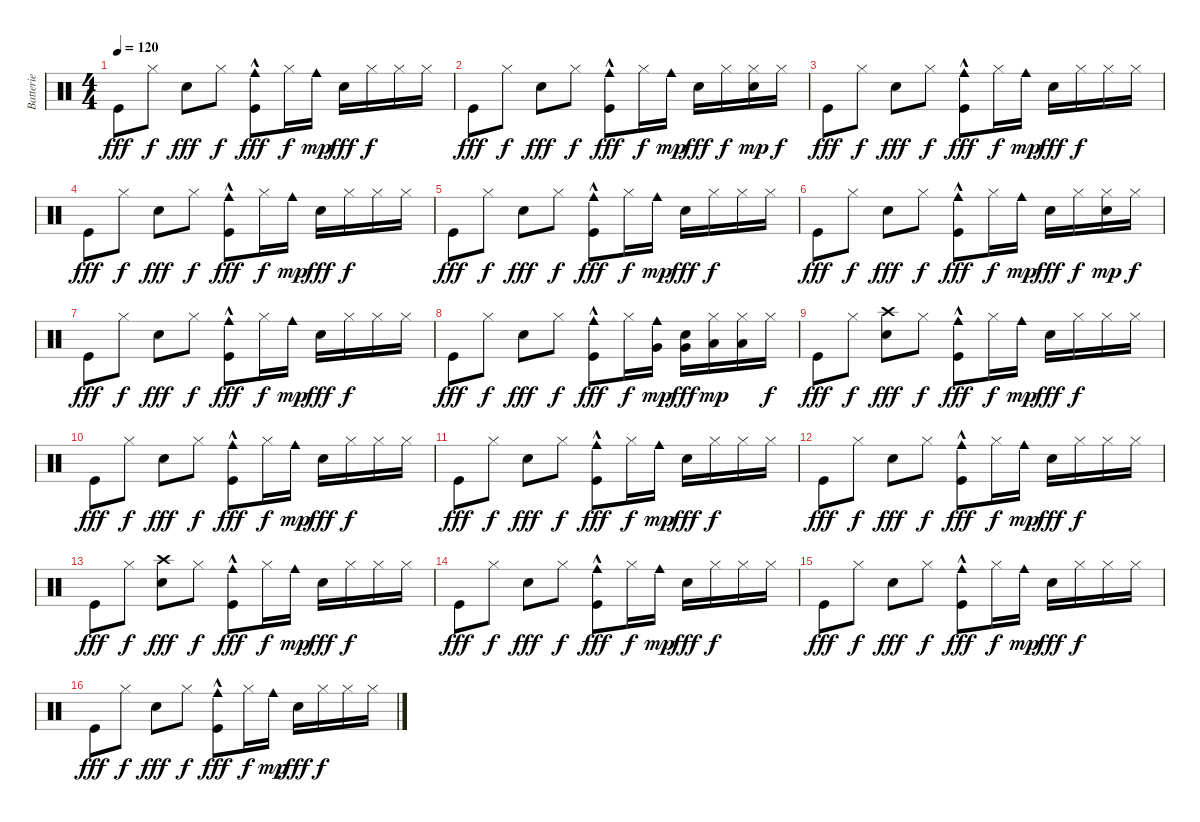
\track ("Batterie" "Batterie") {instrument percussion}
\staff {score}
\articulation defaults
\ts (4 4)
\tempo 120
\clef neutral
\ks c "Kick (hit)".8{dy fff} "Hi-Hat (closed)".8{dy f} "Snare (hit) 2".8{dy fff} "Hi-Hat (closed)".8{dy f}
("Cowbell medium (hit)"{hac} "Kick (hit)").8{dy fff} "Hi-Hat (closed)".16{dy f} "Cowbell medium (hit)".16{dy mp} "Snare (hit) 2".16{dy fff} "Hi-Hat (closed)".16{dy f} "Hi-Hat (closed)".16 "Hi-Hat (closed)".16 |
"Kick (hit)".8{dy fff} "Hi-Hat (closed)".8{dy f} "Snare (hit) 2".8{dy fff} "Hi-Hat (closed)".8{dy f} ("Cowbell medium (hit)"{hac} "Kick (hit)").8{dy fff} "Hi-Hat (closed)".16{dy f} "Cowbell medium (hit)".16{dy mp} "Snare (hit) 2".16{dy fff} "Hi-Hat (closed)".16{dy f} ("Hand Clap (hit)" "Hi-Hat (closed)").16{dy mp} "Hi-Hat (closed)".16{dy f} |
"Kick (hit)".8{dy fff} "Hi-Hat (closed)".8{dy f} "Snare (hit) 2".8{dy fff} "Hi-Hat (closed)".8{dy f} ("Cowbell medium (hit)"{hac} "Kick (hit)").8{dy fff} "Hi-Hat (closed)".16{dy f} "Cowbell medium (hit)".16{dy mp} "Snare (hit) 2".16{dy fff} "Hi-Hat (closed)".16{dy f} "Hi-Hat (closed)".16 "Hi-Hat (closed)".16 |
"Kick (hit)".8{dy fff} "Hi-Hat (closed)".8{dy f} "Snare (hit) 2".8{dy fff} "Hi-Hat (closed)".8{dy f} ("Cowbell medium (hit)"{hac} "Kick (hit)").8{dy fff} "Hi-Hat (closed)".16{dy f} "Cowbell medium (hit)".16{dy mp} "Snare (hit) 2".16{dy fff} "Hi-Hat (closed)".16{dy f} "Hi-Hat (closed)".16 "Hi-Hat (closed)".16 |
"Kick (hit)".8{dy fff} "Hi-Hat (closed)".8{dy f} "Snare (hit) 2".8{dy fff} "Hi-Hat (closed)".8{dy f} ("Cowbell medium (hit)"{hac} "Kick (hit)").8{dy fff} "Hi-Hat (closed)".16{dy f} "Cowbell medium (hit)".16{dy mp} "Snare (hit) 2".16{dy fff} "Hi-Hat (closed)".16{dy f} "Hi-Hat (closed)".16 "Hi-Hat (closed)".16 |
"Kick (hit)".8{dy fff} "Hi-Hat (closed)".8{dy f} "Snare (hit) 2".8{dy fff} "Hi-Hat (closed)".8{dy f} ("Cowbell medium (hit)"{hac} "Kick (hit)").8{dy fff} "Hi-Hat (closed)".16{dy f} "Cowbell medium (hit)".16{dy mp} "Snare (hit) 2".16{dy fff} "Hi-Hat (closed)".16{dy f} ("Hand Clap (hit)" "Hi-Hat (closed)").16{dy mp} "Hi-Hat (closed)".16{dy f} |
"Kick (hit)".8{dy fff} "Hi-Hat (closed)".8{dy f} "Snare (hit) 2".8{dy fff} "Hi-Hat (closed)".8{dy f} ("Cowbell medium (hit)"{hac} "Kick (hit)").8{dy fff} "Hi-Hat (closed)".16{dy f} "Cowbell medium (hit)".16{dy mp} "Snare (hit) 2".16{dy fff} "Hi-Hat (closed)".16{dy f} "Hi-Hat (closed)".16 "Hi-Hat (closed)".16 |
"Kick (hit)".8{dy fff} "Hi-Hat (closed)".8{dy f} "Snare (hit) 2".8{dy fff} "Hi-Hat (closed)".8{dy f} ("Cowbell medium (hit)"{hac} "Kick (hit)").8{dy fff} "Hi-Hat (closed)".16{dy f} ("Very Low Tom (hit)" "Cowbell medium (hit)").16{dy mp} ("Very Low Tom (hit)" "Snare (hit) 2").16{dy fff} ("Low Floor Tom (hit)" "Hi-Hat (closed)").16{dy mp} ("Low Floor Tom (hit)" "Hi-Hat (closed)").16 "Hi-Hat (closed)".16{dy f} |
"Kick (hit)".8{dy fff} "Hi-Hat (closed)".8{dy f} ("Crash high (hit)" "Snare (hit) 2").8{dy fff} "Hi-Hat (closed)".8{dy f} ("Cowbell medium (hit)"{hac} "Kick (hit)").8{dy fff} "Hi-Hat (closed)".16{dy f} "Cowbell medium (hit)".16{dy mp} "Snare (hit) 2".16{dy fff} "Hi-Hat (closed)".16{dy f} "Hi-Hat (closed)".16 "Hi-Hat (closed)".16 |
"Kick (hit)".8{dy fff} "Hi-Hat (closed)".8{dy f} "Snare (hit) 2".8{dy fff} "Hi-Hat (closed)".8{dy f} ("Cowbell medium (hit)"{hac} "Kick (hit)").8{dy fff} "Hi-Hat (closed)".16{dy f} "Cowbell medium (hit)".16{dy mp} "Snare (hit) 2".16{dy fff} "Hi-Hat (closed)".16{dy f} "Hi-Hat (closed)".16 "Hi-Hat (closed)".16 |
"Kick (hit)".8{dy fff} "Hi-Hat (closed)".8{dy f} "Snare (hit) 2".8{dy fff} "Hi-Hat (closed)".8{dy f} ("Cowbell medium (hit)"{hac} "Kick (hit)").8{dy fff} "Hi-Hat (closed)".16{dy f} "Cowbell medium (hit)".16{dy mp} "Snare (hit) 2".16{dy fff} "Hi-Hat (closed)".16{dy f} "Hi-Hat (closed)".16 "Hi-Hat (closed)".16 |
"Kick (hit)".8{dy fff} "Hi-Hat (closed)".8{dy f} "Snare (hit) 2".8{dy fff} "Hi-Hat (closed)".8{dy f} ("Cowbell medium (hit)"{hac} "Kick (hit)").8{dy fff} "Hi-Hat (closed)".16{dy f} "Cowbell medium (hit)".16{dy mp} "Snare (hit) 2".16{dy fff} "Hi-Hat (closed)".16{dy f} "Hi-Hat (closed)".16 "Hi-Hat (closed)".16 |
"Kick (hit)".8{dy fff} "Hi-Hat (closed)".8{dy f} ("Crash high (hit)" "Snare (hit) 2").8{dy fff} "Hi-Hat (closed)".8{dy f} ("Cowbell medium (hit)"{hac} "Kick (hit)").8{dy fff} "Hi-Hat (closed)".16{dy f} "Cowbell medium (hit)".16{dy mp} "Snare (hit) 2".16{dy fff} "Hi-Hat (closed)".16{dy f} "Hi-Hat (closed)".16 "Hi-Hat (closed)".16 |
"Kick (hit)".8{dy fff} "Hi-Hat (closed)".8{dy f} "Snare (hit) 2".8{dy fff} "Hi-Hat (closed)".8{dy f} ("Cowbell medium (hit)"{hac} "Kick (hit)").8{dy fff} "Hi-Hat (closed)".16{dy f} "Cowbell medium (hit)".16{dy mp} "Snare (hit) 2".16{dy fff} "Hi-Hat (closed)".16{dy f} "Hi-Hat (closed)".16 "Hi-Hat (closed)".16 |
"Kick (hit)".8{dy fff} "Hi-Hat (closed)".8{dy f} "Snare (hit) 2".8{dy fff} "Hi-Hat (closed)".8{dy f} ("Cowbell medium (hit)"{hac} "Kick (hit)").8{dy fff} "Hi-Hat (closed)".16{dy f} "Cowbell medium (hit)".16{dy mp} "Snare (hit) 2".16{dy fff} "Hi-Hat (closed)".16{dy f} "Hi-Hat (closed)".16 "Hi-Hat (closed)".16 |
"Kick (hit)".8{dy fff} "Hi-Hat (closed)".8{dy f} "Snare (hit) 2".8{dy fff} "Hi-Hat (closed)".8{dy f} ("Cowbell medium (hit)"{hac} "Kick (hit)").8{dy fff} "Hi-Hat (closed)".16{dy f} "Cowbell medium (hit)".16{dy mp} "Snare (hit) 2".16{dy fff} "Hi-Hat (closed)".16{dy f} "Hi-Hat (closed)".16 "Hi-Hat (closed)".16
